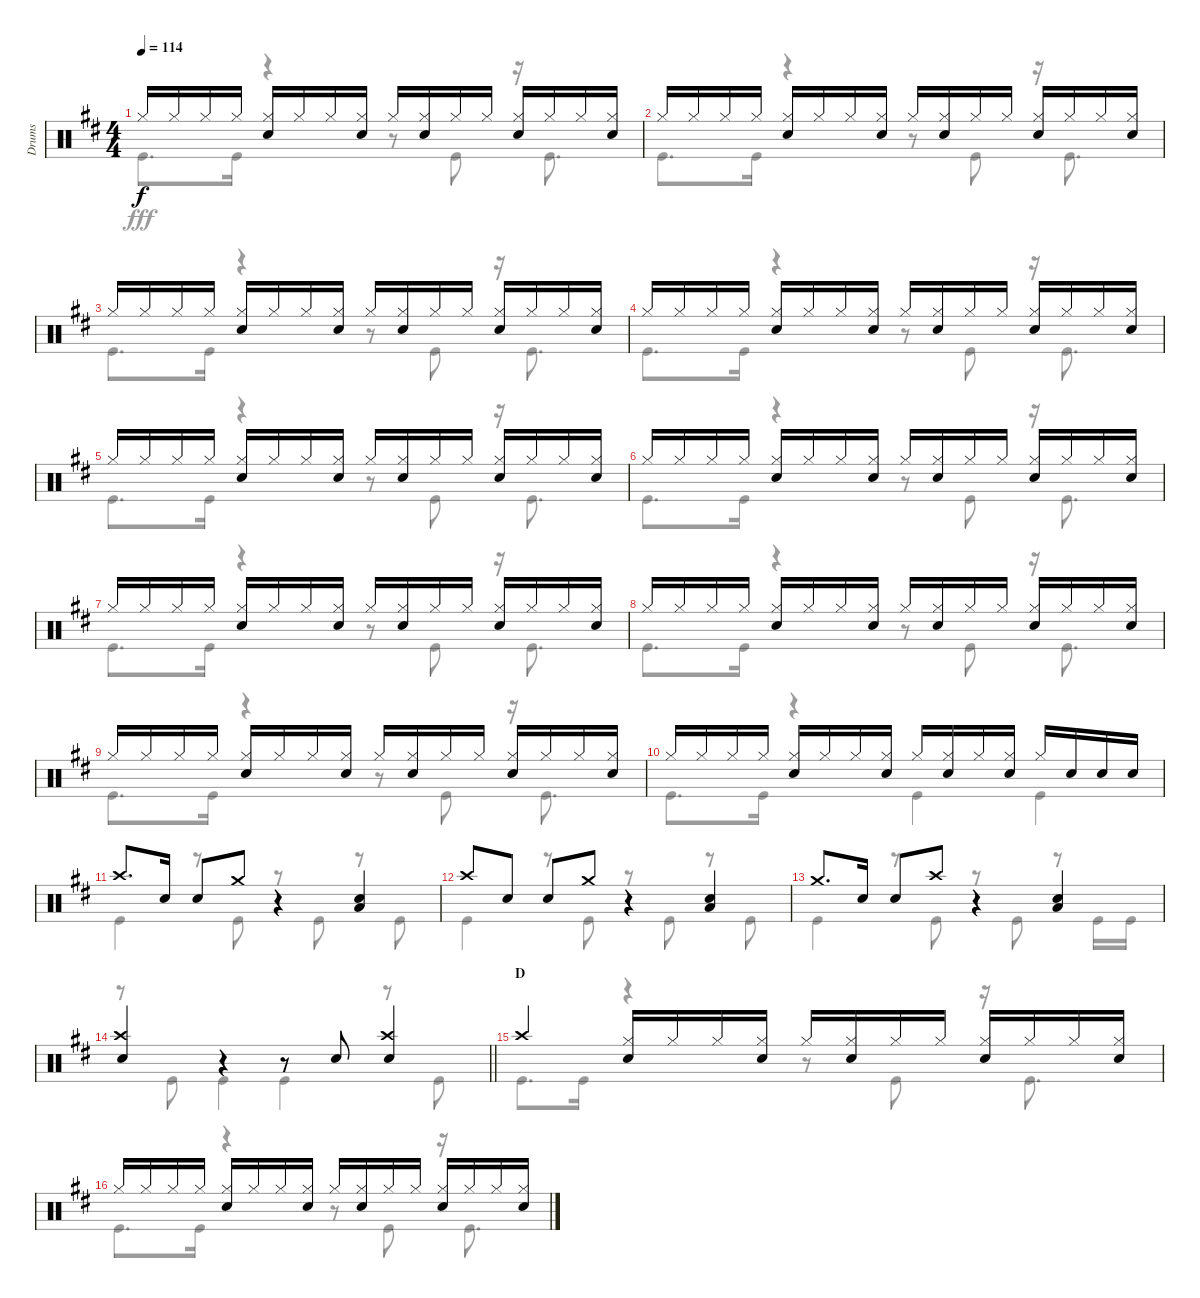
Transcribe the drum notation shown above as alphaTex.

\track ("Drums" "Drums") {instrument percussion}
\staff {score}
\articulation defaults
\voice
\ts (4 4)
\tempo 114
\clef neutral
\ks d "Hi-Hat (closed)".16{dy f} "Hi-Hat (closed)".16 "Hi-Hat (closed)".16 "Hi-Hat (closed)".16
("Hi-Hat (closed)" "Snare (hit) 2").16 "Hi-Hat (closed)".16 "Hi-Hat (closed)".16 ("Hi-Hat (closed)" "Snare (hit) 2").16 "Hi-Hat (closed)".16 ("Hi-Hat (closed)" "Snare (hit) 2").16 "Hi-Hat (closed)".16 "Hi-Hat (closed)".16 ("Hi-Hat (closed)" "Snare (hit) 2").16 "Hi-Hat (closed)".16 "Hi-Hat (closed)".16 ("Hi-Hat (closed)" "Snare (hit) 2").16 |
"Hi-Hat (closed)".16 "Hi-Hat (closed)".16 "Hi-Hat (closed)".16 "Hi-Hat (closed)".16 ("Hi-Hat (closed)" "Snare (hit) 2").16 "Hi-Hat (closed)".16 "Hi-Hat (closed)".16 ("Hi-Hat (closed)" "Snare (hit) 2").16 "Hi-Hat (closed)".16 ("Hi-Hat (closed)" "Snare (hit) 2").16 "Hi-Hat (closed)".16 "Hi-Hat (closed)".16 ("Hi-Hat (closed)" "Snare (hit) 2").16 "Hi-Hat (closed)".16 "Hi-Hat (closed)".16 ("Hi-Hat (closed)" "Snare (hit) 2").16 |
"Hi-Hat (closed)".16 "Hi-Hat (closed)".16 "Hi-Hat (closed)".16 "Hi-Hat (closed)".16 ("Hi-Hat (closed)" "Snare (hit) 2").16 "Hi-Hat (closed)".16 "Hi-Hat (closed)".16 ("Hi-Hat (closed)" "Snare (hit) 2").16 "Hi-Hat (closed)".16 ("Hi-Hat (closed)" "Snare (hit) 2").16 "Hi-Hat (closed)".16 "Hi-Hat (closed)".16 ("Hi-Hat (closed)" "Snare (hit) 2").16 "Hi-Hat (closed)".16 "Hi-Hat (closed)".16 ("Hi-Hat (closed)" "Snare (hit) 2").16 |
"Hi-Hat (closed)".16 "Hi-Hat (closed)".16 "Hi-Hat (closed)".16 "Hi-Hat (closed)".16 ("Hi-Hat (closed)" "Snare (hit) 2").16 "Hi-Hat (closed)".16 "Hi-Hat (closed)".16 ("Hi-Hat (closed)" "Snare (hit) 2").16 "Hi-Hat (closed)".16 ("Hi-Hat (closed)" "Snare (hit) 2").16 "Hi-Hat (closed)".16 "Hi-Hat (closed)".16 ("Hi-Hat (closed)" "Snare (hit) 2").16 "Hi-Hat (closed)".16 "Hi-Hat (closed)".16 ("Hi-Hat (closed)" "Snare (hit) 2").16 |
"Hi-Hat (closed)".16 "Hi-Hat (closed)".16 "Hi-Hat (closed)".16 "Hi-Hat (closed)".16 ("Hi-Hat (closed)" "Snare (hit) 2").16 "Hi-Hat (closed)".16 "Hi-Hat (closed)".16 ("Hi-Hat (closed)" "Snare (hit) 2").16 "Hi-Hat (closed)".16 ("Hi-Hat (closed)" "Snare (hit) 2").16 "Hi-Hat (closed)".16 "Hi-Hat (closed)".16 ("Hi-Hat (closed)" "Snare (hit) 2").16 "Hi-Hat (closed)".16 "Hi-Hat (closed)".16 ("Hi-Hat (closed)" "Snare (hit) 2").16 |
"Hi-Hat (closed)".16 "Hi-Hat (closed)".16 "Hi-Hat (closed)".16 "Hi-Hat (closed)".16 ("Hi-Hat (closed)" "Snare (hit) 2").16 "Hi-Hat (closed)".16 "Hi-Hat (closed)".16 ("Hi-Hat (closed)" "Snare (hit) 2").16 "Hi-Hat (closed)".16 ("Hi-Hat (closed)" "Snare (hit) 2").16 "Hi-Hat (closed)".16 "Hi-Hat (closed)".16 ("Hi-Hat (closed)" "Snare (hit) 2").16 "Hi-Hat (closed)".16 "Hi-Hat (closed)".16 ("Hi-Hat (closed)" "Snare (hit) 2").16 |
"Hi-Hat (closed)".16 "Hi-Hat (closed)".16 "Hi-Hat (closed)".16 "Hi-Hat (closed)".16 ("Hi-Hat (closed)" "Snare (hit) 2").16 "Hi-Hat (closed)".16 "Hi-Hat (closed)".16 ("Hi-Hat (closed)" "Snare (hit) 2").16 "Hi-Hat (closed)".16 ("Hi-Hat (closed)" "Snare (hit) 2").16 "Hi-Hat (closed)".16 "Hi-Hat (closed)".16 ("Hi-Hat (closed)" "Snare (hit) 2").16 "Hi-Hat (closed)".16 "Hi-Hat (closed)".16 ("Hi-Hat (closed)" "Snare (hit) 2").16 |
"Hi-Hat (closed)".16 "Hi-Hat (closed)".16 "Hi-Hat (closed)".16 "Hi-Hat (closed)".16 ("Hi-Hat (closed)" "Snare (hit) 2").16 "Hi-Hat (closed)".16 "Hi-Hat (closed)".16 ("Hi-Hat (closed)" "Snare (hit) 2").16 "Hi-Hat (closed)".16 ("Hi-Hat (closed)" "Snare (hit) 2").16 "Hi-Hat (closed)".16 "Hi-Hat (closed)".16 ("Hi-Hat (closed)" "Snare (hit) 2").16 "Hi-Hat (closed)".16 "Hi-Hat (closed)".16 ("Hi-Hat (closed)" "Snare (hit) 2").16 |
"Hi-Hat (closed)".16 "Hi-Hat (closed)".16 "Hi-Hat (closed)".16 "Hi-Hat (closed)".16 ("Hi-Hat (closed)" "Snare (hit) 2").16 "Hi-Hat (closed)".16 "Hi-Hat (closed)".16 ("Hi-Hat (closed)" "Snare (hit) 2").16 "Hi-Hat (closed)".16 ("Hi-Hat (closed)" "Snare (hit) 2").16 "Hi-Hat (closed)".16 "Hi-Hat (closed)".16 ("Hi-Hat (closed)" "Snare (hit) 2").16 "Hi-Hat (closed)".16 "Hi-Hat (closed)".16 ("Hi-Hat (closed)" "Snare (hit) 2").16 |
"Hi-Hat (closed)".16 "Hi-Hat (closed)".16 "Hi-Hat (closed)".16 "Hi-Hat (closed)".16 ("Hi-Hat (closed)" "Snare (hit) 2").16 "Hi-Hat (closed)".16 "Hi-Hat (closed)".16 ("Hi-Hat (closed)" "Snare (hit) 2").16 "Hi-Hat (closed)".16 ("Hi-Hat (closed)" "Snare (hit) 2").16 "Hi-Hat (closed)".16 ("Hi-Hat (closed)" "Snare (hit) 2").16 "Hi-Hat (closed)".16 "Snare (hit) 2".16 "Snare (hit) 2".16 "Snare (hit) 2".16 |
"Crash high (hit)".8{d} "Snare (hit) 2".16 "Snare (hit) 2".8 "Crash medium (hit)".8 r.4 ("Snare (hit) 2" "Low Tom (hit)").4 |
"Crash high (hit)".8 "Snare (hit) 2".8 "Snare (hit) 2".8 "Crash medium (hit)".8 r.4 ("Snare (hit) 2" "Low Tom (hit)").4 |
"Crash medium (hit)".8{d} "Snare (hit) 2".16 "Snare (hit) 2".8 "Crash high (hit)".8 r.4 ("Snare (hit) 2" "Low Tom (hit)").4 |
\barLineRight lightlight
("Crash high (hit)" "Snare (hit) 2").4 r.4 r.8 "Snare (hit) 2".8 ("Snare (hit) 2" "Crash high (hit)").4 |
\section ("" "D")
"Crash high (hit)".4 ("Hi-Hat (closed)" "Snare (hit) 2").16 "Hi-Hat (closed)".16 "Hi-Hat (closed)".16 ("Hi-Hat (closed)" "Snare (hit) 2").16 "Hi-Hat (closed)".16 ("Hi-Hat (closed)" "Snare (hit) 2").16 "Hi-Hat (closed)".16 "Hi-Hat (closed)".16 ("Hi-Hat (closed)" "Snare (hit) 2").16 "Hi-Hat (closed)".16 "Hi-Hat (closed)".16 ("Hi-Hat (closed)" "Snare (hit) 2").16 |
"Hi-Hat (closed)".16 "Hi-Hat (closed)".16 "Hi-Hat (closed)".16 "Hi-Hat (closed)".16 ("Hi-Hat (closed)" "Snare (hit) 2").16 "Hi-Hat (closed)".16 "Hi-Hat (closed)".16 ("Hi-Hat (closed)" "Snare (hit) 2").16 "Hi-Hat (closed)".16 ("Hi-Hat (closed)" "Snare (hit) 2").16 "Hi-Hat (closed)".16 "Hi-Hat (closed)".16 ("Hi-Hat (closed)" "Snare (hit) 2").16 "Hi-Hat (closed)".16 "Hi-Hat (closed)".16 ("Hi-Hat (closed)" "Snare (hit) 2").16
\voice
\clef neutral
\ottava regular
\simile none
\ks d "Kick (hit)".8{d dy fff} "Kick (hit)".16
r.4 r.8 "Kick (hit)".8 r.16 "Kick (hit)".8{d} |
"Kick (hit)".8{d} "Kick (hit)".16 r.4 r.8 "Kick (hit)".8 r.16 "Kick (hit)".8{d} |
"Kick (hit)".8{d} "Kick (hit)".16 r.4 r.8 "Kick (hit)".8 r.16 "Kick (hit)".8{d} |
"Kick (hit)".8{d} "Kick (hit)".16 r.4 r.8 "Kick (hit)".8 r.16 "Kick (hit)".8{d} |
"Kick (hit)".8{d} "Kick (hit)".16 r.4 r.8 "Kick (hit)".8 r.16 "Kick (hit)".8{d} |
"Kick (hit)".8{d} "Kick (hit)".16 r.4 r.8 "Kick (hit)".8 r.16 "Kick (hit)".8{d} |
"Kick (hit)".8{d} "Kick (hit)".16 r.4 r.8 "Kick (hit)".8 r.16 "Kick (hit)".8{d} |
"Kick (hit)".8{d} "Kick (hit)".16 r.4 r.8 "Kick (hit)".8 r.16 "Kick (hit)".8{d} |
"Kick (hit)".8{d} "Kick (hit)".16 r.4 r.8 "Kick (hit)".8 r.16 "Kick (hit)".8{d} |
"Kick (hit)".8{d} "Kick (hit)".16 r.4 "Kick (hit)".4 "Kick (hit)".4 |
"Kick (hit)".4 r.8 "Kick (hit)".8 r.8 "Kick (hit)".8 r.8 "Kick (hit)".8 |
"Kick (hit)".4 r.8 "Kick (hit)".8 r.8 "Kick (hit)".8 r.8 "Kick (hit)".8 |
"Kick (hit)".4 r.8 "Kick (hit)".8 r.8 "Kick (hit)".8 r.8 "Kick (hit)".16 "Kick (hit)".16 |
\barLineRight lightlight
r.8 "Kick (hit)".8 "Kick (hit)".4 "Kick (hit)".4 r.8 "Kick (hit)".8 |
"Kick (hit)".8{d} "Kick (hit)".16 r.4 r.8 "Kick (hit)".8 r.16 "Kick (hit)".8{d} |
"Kick (hit)".8{d} "Kick (hit)".16 r.4 r.8 "Kick (hit)".8 r.16 "Kick (hit)".8{d}
